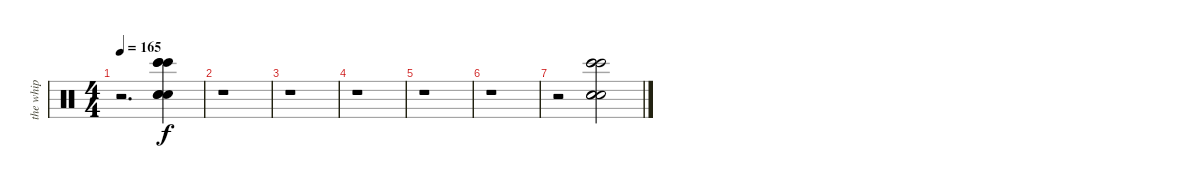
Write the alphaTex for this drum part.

\track ("the whip " "the whip ") {instrument percussion}
\staff {score}
\articulation defaults
\ts (4 4)
\tempo 165
\clef neutral
\ks c
r.2{d dy f} ("Hand Clap (hit)" "Hand Clap (hit)" "Hand Clap (hit)" "Bongo High (hit)" "Bongo High (hit)" "Bongo High (hit)").4 |
r.1 |
r.1 |
r.1 |
r.1 |
r.1 |
r.2 ("Hand Clap (hit)" "Hand Clap (hit)" "Hand Clap (hit)" "Bongo High (hit)" "Bongo High (hit)" "Bongo High (hit)").2
